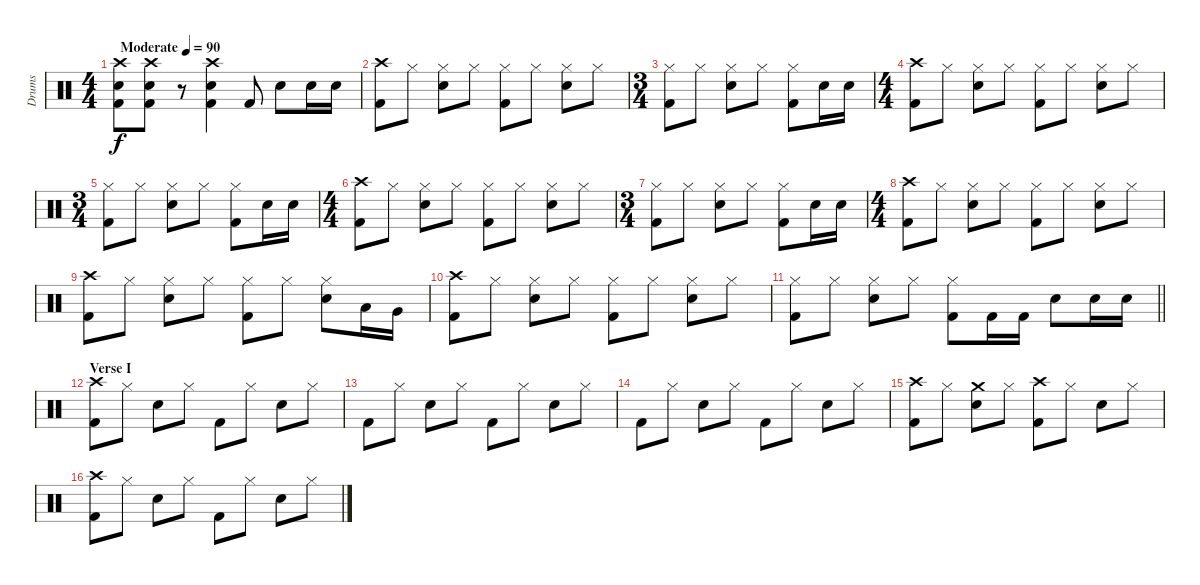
\track ("Drums" "Drums") {instrument percussion}
\staff {score}
\articulation defaults
\ts (4 4)
\tempo (90 "Moderate")
\clef neutral
\ks c
("Crash high (hit)" "Snare (hit) 2" "Kick (hit) 2").8{dy f} ("Crash high (hit)" "Snare (hit) 2" "Kick (hit) 2").8 r.8 ("Crash high (hit)" "Snare (hit) 2" "Kick (hit) 2").4 "Kick (hit) 2".8 "Snare (hit) 2".8 "Snare (hit) 2".16 "Snare (hit) 2".16 |
("Crash high (hit)" "Kick (hit) 2").8 "Hi-Hat (closed)".8 ("Hi-Hat (closed)" "Snare (hit) 2").8 "Hi-Hat (closed)".8 ("Hi-Hat (closed)" "Kick (hit) 2").8 "Hi-Hat (closed)".8 ("Hi-Hat (closed)" "Snare (hit) 2").8 "Hi-Hat (closed)".8 |
\ts (3 4)
("Hi-Hat (closed)" "Kick (hit) 2").8 "Hi-Hat (closed)".8 ("Hi-Hat (closed)" "Snare (hit) 2").8 "Hi-Hat (closed)".8 ("Hi-Hat (closed)" "Kick (hit) 2").8 "Snare (hit) 2".16 "Snare (hit) 2".16 |
\ts (4 4)
("Crash high (hit)" "Kick (hit) 2").8 "Hi-Hat (closed)".8 ("Hi-Hat (closed)" "Snare (hit) 2").8 "Hi-Hat (closed)".8 ("Hi-Hat (closed)" "Kick (hit) 2").8 "Hi-Hat (closed)".8 ("Hi-Hat (closed)" "Snare (hit) 2").8 "Hi-Hat (closed)".8 |
\ts (3 4)
("Hi-Hat (closed)" "Kick (hit) 2").8 "Hi-Hat (closed)".8 ("Hi-Hat (closed)" "Snare (hit) 2").8 "Hi-Hat (closed)".8 ("Hi-Hat (closed)" "Kick (hit) 2").8 "Snare (hit) 2".16 "Snare (hit) 2".16 |
\ts (4 4)
("Crash high (hit)" "Kick (hit) 2").8 "Hi-Hat (closed)".8 ("Hi-Hat (closed)" "Snare (hit) 2").8 "Hi-Hat (closed)".8 ("Hi-Hat (closed)" "Kick (hit) 2").8 "Hi-Hat (closed)".8 ("Hi-Hat (closed)" "Snare (hit) 2").8 "Hi-Hat (closed)".8 |
\ts (3 4)
("Hi-Hat (closed)" "Kick (hit) 2").8 "Hi-Hat (closed)".8 ("Hi-Hat (closed)" "Snare (hit) 2").8 "Hi-Hat (closed)".8 ("Hi-Hat (closed)" "Kick (hit) 2").8 "Snare (hit) 2".16 "Snare (hit) 2".16 |
\ts (4 4)
("Crash high (hit)" "Kick (hit) 2").8 "Hi-Hat (closed)".8 ("Hi-Hat (closed)" "Snare (hit) 2").8 "Hi-Hat (closed)".8 ("Hi-Hat (closed)" "Kick (hit) 2").8 "Hi-Hat (closed)".8 ("Hi-Hat (closed)" "Snare (hit) 2").8 "Hi-Hat (closed)".8 |
("Crash high (hit)" "Kick (hit) 2").8 "Hi-Hat (closed)".8 ("Hi-Hat (closed)" "Snare (hit) 2").8 "Hi-Hat (closed)".8 ("Hi-Hat (closed)" "Kick (hit) 2").8 "Hi-Hat (closed)".8 ("Hi-Hat (closed)" "Snare (hit) 2").8 "Low Tom (hit)".16 "Very Low Tom (hit)".16 |
("Crash high (hit)" "Kick (hit) 2").8 "Hi-Hat (closed)".8 ("Hi-Hat (closed)" "Snare (hit) 2").8 "Hi-Hat (closed)".8 ("Hi-Hat (closed)" "Kick (hit) 2").8 "Hi-Hat (closed)".8 ("Hi-Hat (closed)" "Snare (hit) 2").8 "Hi-Hat (closed)".8 |
\barLineRight lightlight
("Hi-Hat (closed)" "Kick (hit) 2").8 "Hi-Hat (closed)".8 ("Hi-Hat (closed)" "Snare (hit) 2").8 "Hi-Hat (closed)".8 ("Hi-Hat (closed)" "Kick (hit) 2").8 "Kick (hit) 2".16 "Kick (hit) 2".16 "Snare (hit) 2".8 "Snare (hit) 2".16 "Snare (hit) 2".16 |
\section ("" "Verse I")
("Crash high (hit)" "Kick (hit) 2").8 "Hi-Hat (closed)".8 "Snare (hit) 2".8 "Hi-Hat (closed)".8 "Kick (hit) 2".8 "Hi-Hat (closed)".8 "Snare (hit) 2".8 "Hi-Hat (closed)".8 |
"Kick (hit) 2".8 "Hi-Hat (closed)".8 "Snare (hit) 2".8 "Hi-Hat (closed)".8 "Kick (hit) 2".8 "Hi-Hat (closed)".8 "Snare (hit) 2".8 "Hi-Hat (closed)".8 |
"Kick (hit) 2".8 "Hi-Hat (closed)".8 "Snare (hit) 2".8 "Hi-Hat (closed)".8 "Kick (hit) 2".8 "Hi-Hat (closed)".8 "Snare (hit) 2".8 "Hi-Hat (closed)".8 |
("Crash high (hit)" "Kick (hit) 2").8 "Hi-Hat (closed)".8 ("Crash medium (hit)" "Snare (hit) 2").8 "Hi-Hat (closed)".8 ("Crash high (hit)" "Kick (hit) 2").8 "Hi-Hat (closed)".8 "Snare (hit) 2".8 "Hi-Hat (closed)".8 |
("Crash high (hit)" "Kick (hit) 2").8 "Hi-Hat (closed)".8 "Snare (hit) 2".8 "Hi-Hat (closed)".8 "Kick (hit) 2".8 "Hi-Hat (closed)".8 "Snare (hit) 2".8 "Hi-Hat (closed)".8
